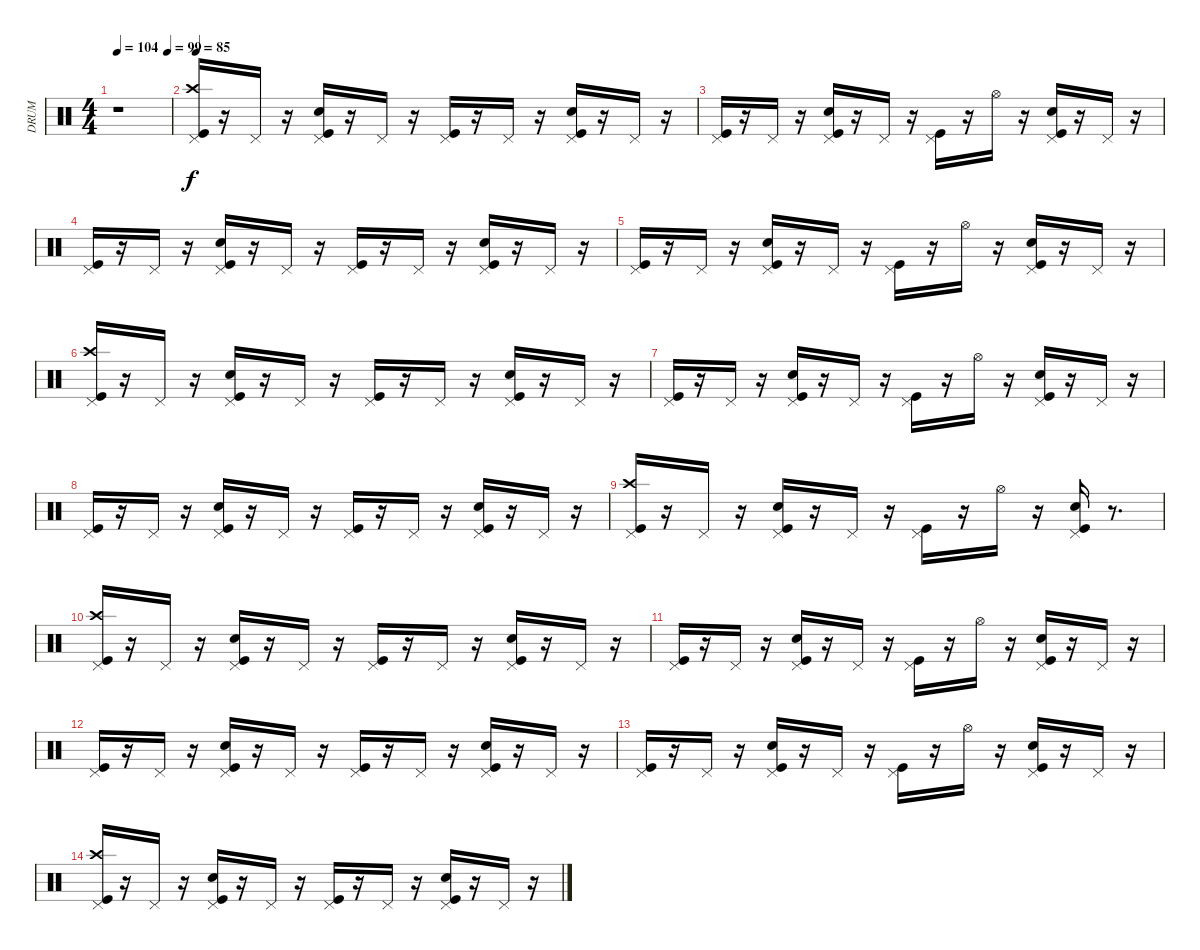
\track ("DRUM" "DRUM") {instrument percussion}
\staff {score}
\articulation defaults
\ts (4 4)
\tempo 104
\tempo (99 0.9375)
\tempo 104
\clef neutral
\ks c
r.1{dy f} |
\tempo 85
("Pedal Hi-Hat (hit)" "Crash high (hit)" "Kick (hit)").16 r.16 "Pedal Hi-Hat (hit)".16 r.16 ("Kick (hit)" "Electric Snare (hit)" "Pedal Hi-Hat (hit)").16 r.16 "Pedal Hi-Hat (hit)".16 r.16 ("Kick (hit)" "Pedal Hi-Hat (hit)").16 r.16 "Pedal Hi-Hat (hit)".16 r.16 ("Kick (hit)" "Electric Snare (hit)" "Pedal Hi-Hat (hit)").16 r.16 "Pedal Hi-Hat (hit)".16 r.16 |
("Kick (hit)" "Pedal Hi-Hat (hit)").16 r.16 "Pedal Hi-Hat (hit)".16 r.16 ("Kick (hit)" "Electric Snare (hit)" "Pedal Hi-Hat (hit)").16 r.16 "Pedal Hi-Hat (hit)".16 r.16 ("Kick (hit)" "Pedal Hi-Hat (hit)").16 r.16 "Hi-Hat (open)".16 r.16 ("Kick (hit)" "Electric Snare (hit)" "Pedal Hi-Hat (hit)").16 r.16 "Pedal Hi-Hat (hit)".16 r.16 |
("Pedal Hi-Hat (hit)" "Kick (hit)").16 r.16 "Pedal Hi-Hat (hit)".16 r.16 ("Kick (hit)" "Electric Snare (hit)" "Pedal Hi-Hat (hit)").16 r.16 "Pedal Hi-Hat (hit)".16 r.16 ("Kick (hit)" "Pedal Hi-Hat (hit)").16 r.16 "Pedal Hi-Hat (hit)".16 r.16 ("Kick (hit)" "Electric Snare (hit)" "Pedal Hi-Hat (hit)").16 r.16 "Pedal Hi-Hat (hit)".16 r.16 |
("Kick (hit)" "Pedal Hi-Hat (hit)").16 r.16 "Pedal Hi-Hat (hit)".16 r.16 ("Kick (hit)" "Electric Snare (hit)" "Pedal Hi-Hat (hit)").16 r.16 "Pedal Hi-Hat (hit)".16 r.16 ("Kick (hit)" "Pedal Hi-Hat (hit)").16 r.16 "Hi-Hat (open)".16 r.16 ("Kick (hit)" "Electric Snare (hit)" "Pedal Hi-Hat (hit)").16 r.16 "Pedal Hi-Hat (hit)".16 r.16 |
("Pedal Hi-Hat (hit)" "Crash high (hit)" "Kick (hit)").16 r.16 "Pedal Hi-Hat (hit)".16 r.16 ("Kick (hit)" "Electric Snare (hit)" "Pedal Hi-Hat (hit)").16 r.16 "Pedal Hi-Hat (hit)".16 r.16 ("Kick (hit)" "Pedal Hi-Hat (hit)").16 r.16 "Pedal Hi-Hat (hit)".16 r.16 ("Kick (hit)" "Electric Snare (hit)" "Pedal Hi-Hat (hit)").16 r.16 "Pedal Hi-Hat (hit)".16 r.16 |
("Kick (hit)" "Pedal Hi-Hat (hit)").16 r.16 "Pedal Hi-Hat (hit)".16 r.16 ("Kick (hit)" "Electric Snare (hit)" "Pedal Hi-Hat (hit)").16 r.16 "Pedal Hi-Hat (hit)".16 r.16 ("Kick (hit)" "Pedal Hi-Hat (hit)").16 r.16 "Hi-Hat (open)".16 r.16 ("Kick (hit)" "Electric Snare (hit)" "Pedal Hi-Hat (hit)").16 r.16 "Pedal Hi-Hat (hit)".16 r.16 |
("Pedal Hi-Hat (hit)" "Kick (hit)").16 r.16 "Pedal Hi-Hat (hit)".16 r.16 ("Kick (hit)" "Electric Snare (hit)" "Pedal Hi-Hat (hit)").16 r.16 "Pedal Hi-Hat (hit)".16 r.16 ("Kick (hit)" "Pedal Hi-Hat (hit)").16 r.16 "Pedal Hi-Hat (hit)".16 r.16 ("Kick (hit)" "Electric Snare (hit)" "Pedal Hi-Hat (hit)").16 r.16 "Pedal Hi-Hat (hit)".16 r.16 |
("Kick (hit)" "Pedal Hi-Hat (hit)" "Crash high (hit)").16 r.16 "Pedal Hi-Hat (hit)".16 r.16 ("Kick (hit)" "Electric Snare (hit)" "Pedal Hi-Hat (hit)").16 r.16 "Pedal Hi-Hat (hit)".16 r.16 ("Kick (hit)" "Pedal Hi-Hat (hit)").16 r.16 "Hi-Hat (open)".16 r.16 ("Kick (hit)" "Electric Snare (hit)" "Pedal Hi-Hat (hit)").16 r.8{d} |
("Kick (hit)" "Crash high (hit)" "Pedal Hi-Hat (hit)").16 r.16 "Pedal Hi-Hat (hit)".16 r.16 ("Kick (hit)" "Electric Snare (hit)" "Pedal Hi-Hat (hit)").16 r.16 "Pedal Hi-Hat (hit)".16 r.16 ("Kick (hit)" "Pedal Hi-Hat (hit)").16 r.16 "Pedal Hi-Hat (hit)".16 r.16 ("Kick (hit)" "Electric Snare (hit)" "Pedal Hi-Hat (hit)").16 r.16 "Pedal Hi-Hat (hit)".16 r.16 |
("Kick (hit)" "Pedal Hi-Hat (hit)").16 r.16 "Pedal Hi-Hat (hit)".16 r.16 ("Kick (hit)" "Electric Snare (hit)" "Pedal Hi-Hat (hit)").16 r.16 "Pedal Hi-Hat (hit)".16 r.16 ("Kick (hit)" "Pedal Hi-Hat (hit)").16 r.16 "Hi-Hat (open)".16 r.16 ("Kick (hit)" "Electric Snare (hit)" "Pedal Hi-Hat (hit)").16 r.16 "Pedal Hi-Hat (hit)".16 r.16 |
("Pedal Hi-Hat (hit)" "Kick (hit)").16 r.16 "Pedal Hi-Hat (hit)".16 r.16 ("Kick (hit)" "Electric Snare (hit)" "Pedal Hi-Hat (hit)").16 r.16 "Pedal Hi-Hat (hit)".16 r.16 ("Kick (hit)" "Pedal Hi-Hat (hit)").16 r.16 "Pedal Hi-Hat (hit)".16 r.16 ("Kick (hit)" "Electric Snare (hit)" "Pedal Hi-Hat (hit)").16 r.16 "Pedal Hi-Hat (hit)".16 r.16 |
("Kick (hit)" "Pedal Hi-Hat (hit)").16 r.16 "Pedal Hi-Hat (hit)".16 r.16 ("Kick (hit)" "Electric Snare (hit)" "Pedal Hi-Hat (hit)").16 r.16 "Pedal Hi-Hat (hit)".16 r.16 ("Kick (hit)" "Pedal Hi-Hat (hit)").16 r.16 "Hi-Hat (open)".16 r.16 ("Kick (hit)" "Electric Snare (hit)" "Pedal Hi-Hat (hit)").16 r.16 "Pedal Hi-Hat (hit)".16 r.16 |
("Pedal Hi-Hat (hit)" "Crash high (hit)" "Kick (hit)").16 r.16 "Pedal Hi-Hat (hit)".16 r.16 ("Kick (hit)" "Electric Snare (hit)" "Pedal Hi-Hat (hit)").16 r.16 "Pedal Hi-Hat (hit)".16 r.16 ("Kick (hit)" "Pedal Hi-Hat (hit)").16 r.16 "Pedal Hi-Hat (hit)".16 r.16 ("Kick (hit)" "Electric Snare (hit)" "Pedal Hi-Hat (hit)").16 r.16 "Pedal Hi-Hat (hit)".16 r.16
